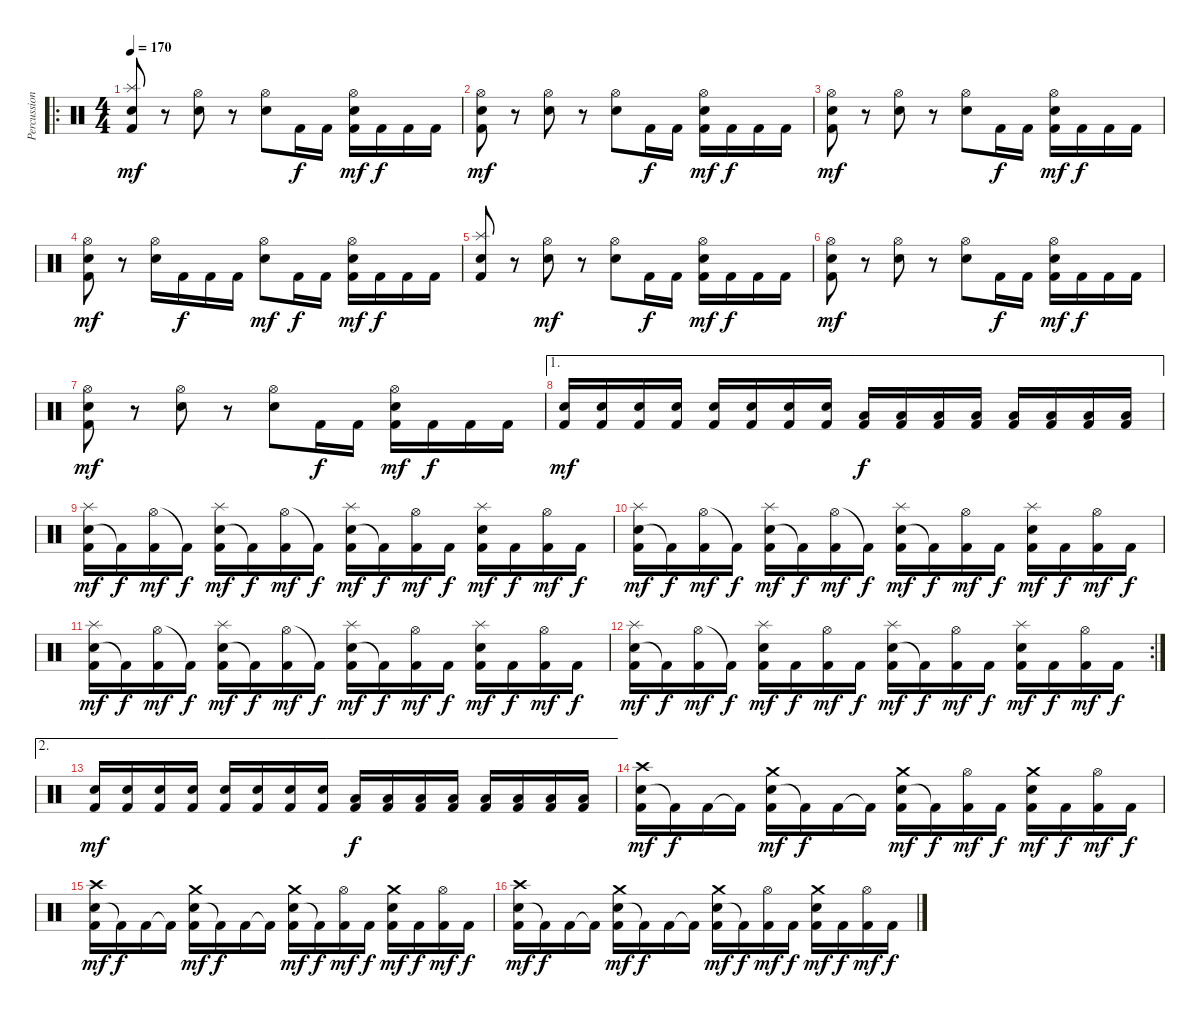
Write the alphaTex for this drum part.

\track ("Percussion" "Percussion") {instrument percussion}
\staff {score}
\articulation defaults
\ro
\ts (4 4)
\tempo 170
\clef neutral
\ks c
("Snare (hit) 2" "Splash (hit)" "Kick (hit) 2").8{dy mf} r.8 ("Snare (hit) 2" "Hi-Hat (open)").8 r.8 ("Snare (hit) 2" "Hi-Hat (open)").8 "Kick (hit) 2".16{dy f} "Kick (hit) 2".16 ("Snare (hit) 2" "Hi-Hat (open)" "Kick (hit) 2").16{dy mf} "Kick (hit) 2".16{dy f} "Kick (hit) 2".16 "Kick (hit) 2".16 |
("Snare (hit) 2" "Hi-Hat (open)" "Kick (hit) 2").8{dy mf} r.8 ("Snare (hit) 2" "Hi-Hat (open)").8 r.8 ("Snare (hit) 2" "Hi-Hat (open)").8 "Kick (hit) 2".16{dy f} "Kick (hit) 2".16 ("Snare (hit) 2" "Hi-Hat (open)" "Kick (hit) 2").16{dy mf} "Kick (hit) 2".16{dy f} "Kick (hit) 2".16 "Kick (hit) 2".16 |
("Snare (hit) 2" "Hi-Hat (open)" "Kick (hit) 2").8{dy mf} r.8 ("Snare (hit) 2" "Hi-Hat (open)").8 r.8 ("Snare (hit) 2" "Hi-Hat (open)").8 "Kick (hit) 2".16{dy f} "Kick (hit) 2".16 ("Snare (hit) 2" "Hi-Hat (open)" "Kick (hit) 2").16{dy mf} "Kick (hit) 2".16{dy f} "Kick (hit) 2".16 "Kick (hit) 2".16 |
("Snare (hit) 2" "Hi-Hat (open)" "Kick (hit) 2").8{dy mf} r.8 ("Snare (hit) 2" "Hi-Hat (open)").16 "Kick (hit) 2".16{dy f} "Kick (hit) 2".16 "Kick (hit) 2".16 ("Snare (hit) 2" "Hi-Hat (open)").8{dy mf} "Kick (hit) 2".16{dy f} "Kick (hit) 2".16 ("Snare (hit) 2" "Hi-Hat (open)" "Kick (hit) 2").16{dy mf} "Kick (hit) 2".16{dy f} "Kick (hit) 2".16 "Kick (hit) 2".16 |
("Snare (hit) 2" "Splash (hit)" "Kick (hit) 2").8 r.8 ("Snare (hit) 2" "Hi-Hat (open)").8{dy mf} r.8 ("Snare (hit) 2" "Hi-Hat (open)").8 "Kick (hit) 2".16{dy f} "Kick (hit) 2".16 ("Snare (hit) 2" "Hi-Hat (open)" "Kick (hit) 2").16{dy mf} "Kick (hit) 2".16{dy f} "Kick (hit) 2".16 "Kick (hit) 2".16 |
("Snare (hit) 2" "Hi-Hat (open)" "Kick (hit) 2").8{dy mf} r.8 ("Snare (hit) 2" "Hi-Hat (open)").8 r.8 ("Snare (hit) 2" "Hi-Hat (open)").8 "Kick (hit) 2".16{dy f} "Kick (hit) 2".16 ("Snare (hit) 2" "Hi-Hat (open)" "Kick (hit) 2").16{dy mf} "Kick (hit) 2".16{dy f} "Kick (hit) 2".16 "Kick (hit) 2".16 |
("Snare (hit) 2" "Hi-Hat (open)" "Kick (hit) 2").8{dy mf} r.8 ("Snare (hit) 2" "Hi-Hat (open)").8 r.8 ("Snare (hit) 2" "Hi-Hat (open)").8 "Kick (hit) 2".16{dy f} "Kick (hit) 2".16 ("Snare (hit) 2" "Hi-Hat (open)" "Kick (hit) 2").16{dy mf} "Kick (hit) 2".16{dy f} "Kick (hit) 2".16 "Kick (hit) 2".16 |
\ae 1
("Snare (hit) 2" "Kick (hit) 2").16{dy mf} ("Snare (hit) 2" "Kick (hit) 2").16 ("Snare (hit) 2" "Kick (hit) 2").16 ("Snare (hit) 2" "Kick (hit) 2").16 ("Snare (hit) 2" "Kick (hit) 2").16 ("Snare (hit) 2" "Kick (hit) 2").16 ("Snare (hit) 2" "Kick (hit) 2").16 ("Snare (hit) 2" "Kick (hit) 2").16 ("Low Tom (hit)" "Kick (hit) 2").16{dy f} ("Low Tom (hit)" "Kick (hit) 2").16 ("Low Tom (hit)" "Kick (hit) 2").16 ("Low Tom (hit)" "Kick (hit) 2").16 ("Low Tom (hit)" "Kick (hit) 2").16 ("Low Tom (hit)" "Kick (hit) 2").16 ("Low Tom (hit)" "Kick (hit) 2").16 ("Low Tom (hit)" "Kick (hit) 2").16 |
("Snare (hit) 2" "Splash (hit)" "Kick (hit) 2").16{dy mf} "Kick (hit) 2"{t}.16{dy f} ("Hi-Hat (open)" "Kick (hit) 2").16{dy mf} "Kick (hit) 2"{t}.16{dy f} ("Snare (hit) 2" "Splash (hit)" "Kick (hit) 2").16{dy mf} "Kick (hit) 2"{t}.16{dy f} ("Hi-Hat (open)" "Kick (hit) 2").16{dy mf} "Kick (hit) 2"{t}.16{dy f} ("Snare (hit) 2" "Splash (hit)" "Kick (hit) 2").16{dy mf} "Kick (hit) 2"{t}.16{dy f} ("Hi-Hat (open)" "Kick (hit) 2").16{dy mf} "Kick (hit) 2".16{dy f} ("Snare (hit) 2" "Splash (hit)" "Kick (hit) 2").16{dy mf} "Kick (hit) 2".16{dy f} ("Hi-Hat (open)" "Kick (hit) 2").16{dy mf} "Kick (hit) 2".16{dy f} |
("Snare (hit) 2" "Splash (hit)" "Kick (hit) 2").16{dy mf} "Kick (hit) 2"{t}.16{dy f} ("Hi-Hat (open)" "Kick (hit) 2").16{dy mf} "Kick (hit) 2"{t}.16{dy f} ("Snare (hit) 2" "Splash (hit)" "Kick (hit) 2").16{dy mf} "Kick (hit) 2"{t}.16{dy f} ("Hi-Hat (open)" "Kick (hit) 2").16{dy mf} "Kick (hit) 2"{t}.16{dy f} ("Snare (hit) 2" "Splash (hit)" "Kick (hit) 2").16{dy mf} "Kick (hit) 2"{t}.16{dy f} ("Hi-Hat (open)" "Kick (hit) 2").16{dy mf} "Kick (hit) 2".16{dy f} ("Snare (hit) 2" "Splash (hit)" "Kick (hit) 2").16{dy mf} "Kick (hit) 2".16{dy f} ("Hi-Hat (open)" "Kick (hit) 2").16{dy mf} "Kick (hit) 2".16{dy f} |
("Snare (hit) 2" "Splash (hit)" "Kick (hit) 2").16{dy mf} "Kick (hit) 2"{t}.16{dy f} ("Hi-Hat (open)" "Kick (hit) 2").16{dy mf} "Kick (hit) 2"{t}.16{dy f} ("Snare (hit) 2" "Splash (hit)" "Kick (hit) 2").16{dy mf} "Kick (hit) 2"{t}.16{dy f} ("Hi-Hat (open)" "Kick (hit) 2").16{dy mf} "Kick (hit) 2"{t}.16{dy f} ("Snare (hit) 2" "Splash (hit)" "Kick (hit) 2").16{dy mf} "Kick (hit) 2"{t}.16{dy f} ("Hi-Hat (open)" "Kick (hit) 2").16{dy mf} "Kick (hit) 2".16{dy f} ("Snare (hit) 2" "Splash (hit)" "Kick (hit) 2").16{dy mf} "Kick (hit) 2".16{dy f} ("Hi-Hat (open)" "Kick (hit) 2").16{dy mf} "Kick (hit) 2".16{dy f} |
\rc 2
("Snare (hit) 2" "Splash (hit)" "Kick (hit) 2").16{dy mf} "Kick (hit) 2"{t}.16{dy f} ("Hi-Hat (open)" "Kick (hit) 2").16{dy mf} "Kick (hit) 2"{t}.16{dy f} ("Snare (hit) 2" "Splash (hit)" "Kick (hit) 2").16{dy mf} "Kick (hit) 2".16{dy f} ("Hi-Hat (open)" "Kick (hit) 2").16{dy mf} "Kick (hit) 2".16{dy f} ("Snare (hit) 2" "Splash (hit)" "Kick (hit) 2").16{dy mf} "Kick (hit) 2"{t}.16{dy f} ("Hi-Hat (open)" "Kick (hit) 2").16{dy mf} "Kick (hit) 2".16{dy f} ("Snare (hit) 2" "Splash (hit)" "Kick (hit) 2").16{dy mf} "Kick (hit) 2".16{dy f} ("Hi-Hat (open)" "Kick (hit) 2").16{dy mf} "Kick (hit) 2".16{dy f} |
\ae 2
("Snare (hit) 2" "Kick (hit) 2").16{dy mf} ("Snare (hit) 2" "Kick (hit) 2").16 ("Snare (hit) 2" "Kick (hit) 2").16 ("Snare (hit) 2" "Kick (hit) 2").16 ("Snare (hit) 2" "Kick (hit) 2").16 ("Snare (hit) 2" "Kick (hit) 2").16 ("Snare (hit) 2" "Kick (hit) 2").16 ("Snare (hit) 2" "Kick (hit) 2").16 ("Low Tom (hit)" "Kick (hit) 2").16{dy f} ("Low Tom (hit)" "Kick (hit) 2").16 ("Low Tom (hit)" "Kick (hit) 2").16 ("Low Tom (hit)" "Kick (hit) 2").16 ("Low Tom (hit)" "Kick (hit) 2").16 ("Low Tom (hit)" "Kick (hit) 2").16 ("Low Tom (hit)" "Kick (hit) 2").16 ("Low Tom (hit)" "Kick (hit) 2").16 |
("Snare (hit) 2" "Crash high (hit)" "Kick (hit) 2").16{dy mf} "Kick (hit) 2"{t}.16{dy f} "Kick (hit) 2".16 "Kick (hit) 2"{t}.16 ("Snare (hit) 2" "Crash medium (hit)" "Kick (hit) 2").16{dy mf} "Kick (hit) 2"{t}.16{dy f} "Kick (hit) 2".16 "Kick (hit) 2"{t}.16 ("Snare (hit) 2" "Crash medium (hit)" "Kick (hit) 2").16{dy mf} "Kick (hit) 2"{t}.16{dy f} ("Hi-Hat (open)" "Kick (hit) 2").16{dy mf} "Kick (hit) 2".16{dy f} ("Snare (hit) 2" "Crash medium (hit)" "Kick (hit) 2").16{dy mf} "Kick (hit) 2".16{dy f} ("Hi-Hat (open)" "Kick (hit) 2").16{dy mf} "Kick (hit) 2".16{dy f} |
("Snare (hit) 2" "Crash high (hit)" "Kick (hit) 2").16{dy mf} "Kick (hit) 2"{t}.16{dy f} "Kick (hit) 2".16 "Kick (hit) 2"{t}.16 ("Snare (hit) 2" "Crash medium (hit)" "Kick (hit) 2").16{dy mf} "Kick (hit) 2"{t}.16{dy f} "Kick (hit) 2".16 "Kick (hit) 2"{t}.16 ("Snare (hit) 2" "Crash medium (hit)" "Kick (hit) 2").16{dy mf} "Kick (hit) 2"{t}.16{dy f} ("Hi-Hat (open)" "Kick (hit) 2").16{dy mf} "Kick (hit) 2".16{dy f} ("Snare (hit) 2" "Crash medium (hit)" "Kick (hit) 2").16{dy mf} "Kick (hit) 2".16{dy f} ("Hi-Hat (open)" "Kick (hit) 2").16{dy mf} "Kick (hit) 2".16{dy f} |
("Snare (hit) 2" "Crash high (hit)" "Kick (hit) 2").16{dy mf} "Kick (hit) 2"{t}.16{dy f} "Kick (hit) 2".16 "Kick (hit) 2"{t}.16 ("Snare (hit) 2" "Crash medium (hit)" "Kick (hit) 2").16{dy mf} "Kick (hit) 2"{t}.16{dy f} "Kick (hit) 2".16 "Kick (hit) 2"{t}.16 ("Snare (hit) 2" "Crash medium (hit)" "Kick (hit) 2").16{dy mf} "Kick (hit) 2"{t}.16{dy f} ("Hi-Hat (open)" "Kick (hit) 2").16{dy mf} "Kick (hit) 2".16{dy f} ("Snare (hit) 2" "Crash medium (hit)" "Kick (hit) 2").16{dy mf} "Kick (hit) 2".16{dy f} ("Hi-Hat (open)" "Kick (hit) 2").16{dy mf} "Kick (hit) 2".16{dy f}
